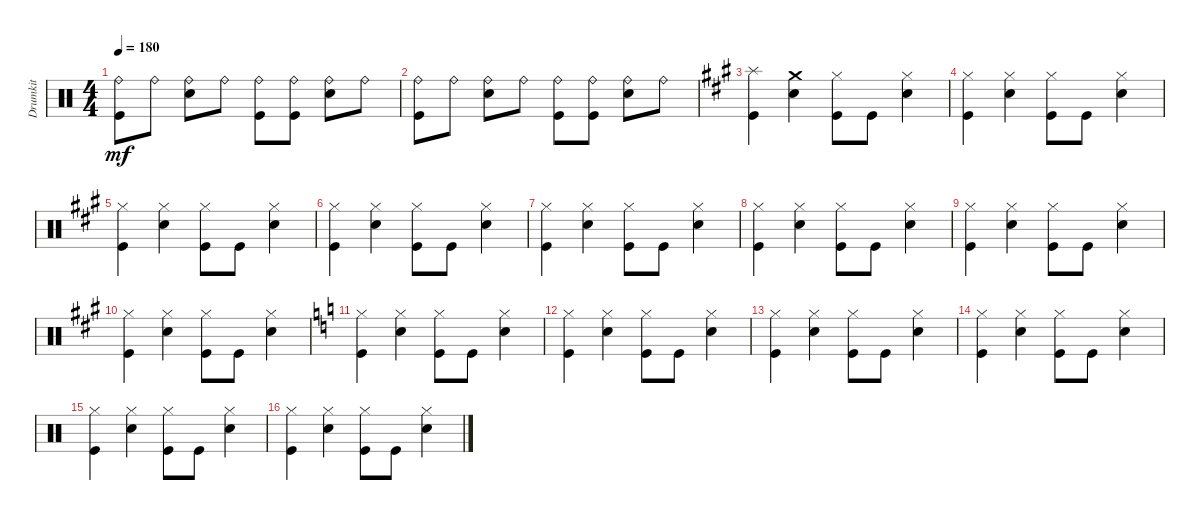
\track ("Drumkit" "Drumkit") {instrument percussion}
\staff {score}
\articulation defaults
\ts (4 4)
\tempo 180
\clef neutral
\ks c
("Kick (hit)" "Ride (bell)").8{dy mf} "Ride (bell)".8 ("Ride (bell)" "Snare (hit) 2").8 "Ride (bell)".8 ("Ride (bell)" "Kick (hit)").8 ("Ride (bell)" "Kick (hit)").8 ("Ride (bell)" "Snare (hit) 2").8 "Ride (bell)".8 |
("Kick (hit)" "Ride (bell)").8 "Ride (bell)".8 ("Ride (bell)" "Snare (hit) 2").8 "Ride (bell)".8 ("Ride (bell)" "Kick (hit)").8 ("Ride (bell)" "Kick (hit)").8 ("Ride (bell)" "Snare (hit) 2").8 "Ride (bell)".8 |
\ks a
("Kick (hit)" "Splash (hit)").4 ("Snare (hit) 2" "Crash medium (hit)").4 ("Kick (hit)" "Hi-Hat (closed)").8 "Kick (hit)".8 ("Snare (hit) 2" "Hi-Hat (closed)").4 |
("Kick (hit)" "Hi-Hat (closed)").4 ("Snare (hit) 2" "Hi-Hat (closed)").4 ("Kick (hit)" "Hi-Hat (closed)").8 "Kick (hit)".8 ("Snare (hit) 2" "Hi-Hat (closed)").4 |
("Kick (hit)" "Hi-Hat (closed)").4 ("Snare (hit) 2" "Hi-Hat (closed)").4 ("Kick (hit)" "Hi-Hat (closed)").8 "Kick (hit)".8 ("Snare (hit) 2" "Hi-Hat (closed)").4 |
("Kick (hit)" "Hi-Hat (closed)").4 ("Snare (hit) 2" "Hi-Hat (closed)").4 ("Kick (hit)" "Hi-Hat (closed)").8 "Kick (hit)".8 ("Snare (hit) 2" "Hi-Hat (closed)").4 |
("Kick (hit)" "Hi-Hat (closed)").4 ("Snare (hit) 2" "Hi-Hat (closed)").4 ("Kick (hit)" "Hi-Hat (closed)").8 "Kick (hit)".8 ("Snare (hit) 2" "Hi-Hat (closed)").4 |
("Kick (hit)" "Hi-Hat (closed)").4 ("Snare (hit) 2" "Hi-Hat (closed)").4 ("Kick (hit)" "Hi-Hat (closed)").8 "Kick (hit)".8 ("Snare (hit) 2" "Hi-Hat (closed)").4 |
("Kick (hit)" "Hi-Hat (closed)").4 ("Snare (hit) 2" "Hi-Hat (closed)").4 ("Kick (hit)" "Hi-Hat (closed)").8 "Kick (hit)".8 ("Snare (hit) 2" "Hi-Hat (closed)").4 |
("Kick (hit)" "Hi-Hat (closed)").4 ("Snare (hit) 2" "Hi-Hat (closed)").4 ("Kick (hit)" "Hi-Hat (closed)").8 "Kick (hit)".8 ("Snare (hit) 2" "Hi-Hat (closed)").4 |
\ks c
("Kick (hit)" "Hi-Hat (closed)").4 ("Snare (hit) 2" "Hi-Hat (closed)").4 ("Kick (hit)" "Hi-Hat (closed)").8 "Kick (hit)".8 ("Snare (hit) 2" "Hi-Hat (closed)").4 |
("Kick (hit)" "Hi-Hat (closed)").4 ("Snare (hit) 2" "Hi-Hat (closed)").4 ("Kick (hit)" "Hi-Hat (closed)").8 "Kick (hit)".8 ("Snare (hit) 2" "Hi-Hat (closed)").4 |
("Kick (hit)" "Hi-Hat (closed)").4 ("Snare (hit) 2" "Hi-Hat (closed)").4 ("Kick (hit)" "Hi-Hat (closed)").8 "Kick (hit)".8 ("Snare (hit) 2" "Hi-Hat (closed)").4 |
("Kick (hit)" "Hi-Hat (closed)").4 ("Snare (hit) 2" "Hi-Hat (closed)").4 ("Kick (hit)" "Hi-Hat (closed)").8 "Kick (hit)".8 ("Snare (hit) 2" "Hi-Hat (closed)").4 |
("Kick (hit)" "Hi-Hat (closed)").4 ("Snare (hit) 2" "Hi-Hat (closed)").4 ("Kick (hit)" "Hi-Hat (closed)").8 "Kick (hit)".8 ("Snare (hit) 2" "Hi-Hat (closed)").4 |
("Kick (hit)" "Hi-Hat (closed)").4 ("Snare (hit) 2" "Hi-Hat (closed)").4 ("Kick (hit)" "Hi-Hat (closed)").8 "Kick (hit)".8 ("Snare (hit) 2" "Hi-Hat (closed)").4
